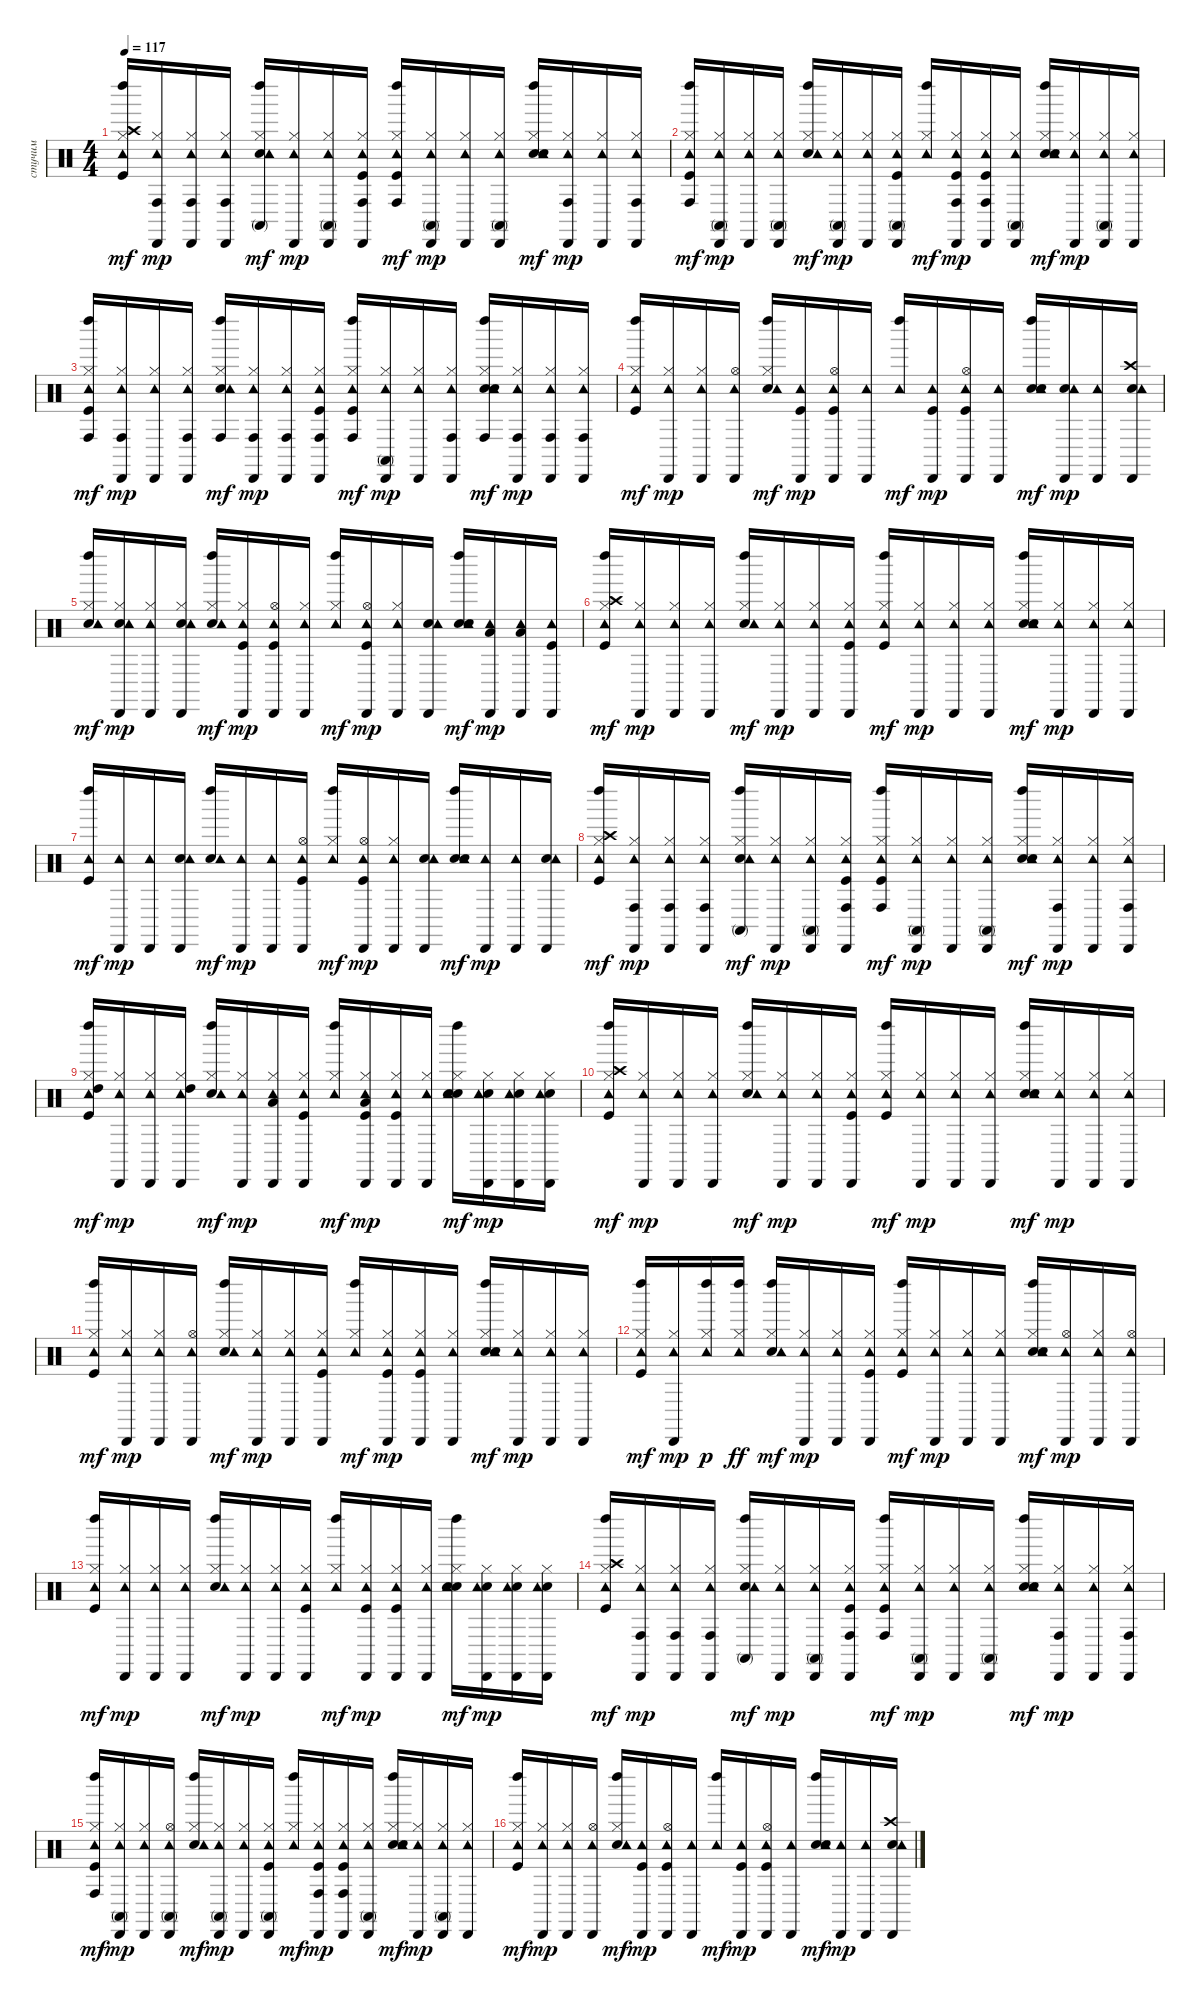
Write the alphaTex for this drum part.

\track ("стучим" "стучим") {instrument percussion}
\staff {score}
\articulation defaults
\ts (4 4)
\tempo 117
\clef neutral
\ks c
("Kick (hit)" "Hi-Hat (closed)" "Crash high (hit)" "Tambourine (hit)" "Left Maraca (hit)").16{dy mf} ("Hi-Hat (closed)" "Conga high (hit)" "Tambourine (hit)" "Cabasa (hit)").16{dy mp} ("Hi-Hat (closed)" "Conga high (hit)" "Tambourine (hit)" "Cabasa (hit)").16 ("Hi-Hat (closed)" "Conga high (hit)" "Tambourine (hit)" "Cabasa (hit)").16 ("Snare (hit) 2" "Hi-Hat (closed)" "Conga high (mute)" "Tambourine (hit)" "Left Maraca (hit)").16{dy mf} ("Hi-Hat (closed)" "Tambourine (hit)" "Cabasa (hit)").16{dy mp} ("Hi-Hat (closed)" "Conga high (mute)" "Tambourine (hit)" "Cabasa (hit)").16 ("Kick (hit)" "Hi-Hat (closed)" "Conga high (hit)" "Tambourine (hit)" "Cabasa (hit)").16 ("Kick (hit)" "Hi-Hat (closed)" "Conga high (hit)" "Tambourine (hit)" "Left Maraca (hit)").16{dy mf} ("Hi-Hat (closed)" "Conga high (mute)" "Tambourine (hit)" "Cabasa (hit)").16{dy mp} ("Hi-Hat (closed)" "Tambourine (hit)" "Cabasa (hit)").16 ("Hi-Hat (closed)" "Conga high (mute)" "Tambourine (hit)" "Cabasa (hit)").16 ("Snare (hit) 2" "Hi-Hat (closed)" "Tambourine (hit)" "Hand Clap (hit)" "Left Maraca (hit)").16{dy mf} ("Hi-Hat (closed)" "Conga high (hit)" "Tambourine (hit)" "Cabasa (hit)").16{dy mp} ("Hi-Hat (closed)" "Tambourine (hit)" "Cabasa (hit)").16 ("Hi-Hat (closed)" "Conga high (hit)" "Tambourine (hit)" "Cabasa (hit)").16 |
("Kick (hit)" "Hi-Hat (closed)" "Conga high (hit)" "Tambourine (hit)" "Left Maraca (hit)").16{dy mf} ("Hi-Hat (closed)" "Conga high (mute)" "Tambourine (hit)" "Cabasa (hit)").16{dy mp} ("Hi-Hat (closed)" "Tambourine (hit)" "Cabasa (hit)").16 ("Hi-Hat (closed)" "Conga high (mute)" "Tambourine (hit)" "Cabasa (hit)").16 ("Snare (hit) 2" "Hi-Hat (closed)" "Tambourine (hit)" "Left Maraca (hit)").16{dy mf} ("Hi-Hat (closed)" "Conga high (mute)" "Tambourine (hit)" "Cabasa (hit)").16{dy mp} ("Hi-Hat (closed)" "Tambourine (hit)" "Cabasa (hit)").16 ("Kick (hit)" "Hi-Hat (closed)" "Conga high (mute)" "Tambourine (hit)" "Cabasa (hit)").16 ("Hi-Hat (closed)" "Tambourine (hit)" "Left Maraca (hit)").16{dy mf} ("Kick (hit)" "Hi-Hat (closed)" "Conga high (hit)" "Tambourine (hit)" "Cabasa (hit)").16{dy mp} ("Kick (hit)" "Hi-Hat (closed)" "Conga high (hit)" "Tambourine (hit)" "Cabasa (hit)").16 ("Hi-Hat (closed)" "Conga high (mute)" "Tambourine (hit)" "Cabasa (hit)").16 ("Snare (hit) 2" "Hi-Hat (closed)" "Tambourine (hit)" "Hand Clap (hit)" "Left Maraca (hit)").16{dy mf} ("Hi-Hat (closed)" "Tambourine (hit)" "Cabasa (hit)").16{dy mp} ("Hi-Hat (closed)" "Conga high (mute)" "Tambourine (hit)" "Cabasa (hit)").16 ("Hi-Hat (closed)" "Tambourine (hit)" "Cabasa (hit)").16 |
("Kick (hit)" "Hi-Hat (closed)" "Conga high (hit)" "Tambourine (hit)" "Left Maraca (hit)").16{dy mf} ("Hi-Hat (closed)" "Conga high (hit)" "Tambourine (hit)" "Cabasa (hit)").16{dy mp} ("Hi-Hat (closed)" "Tambourine (hit)" "Cabasa (hit)").16 ("Hi-Hat (closed)" "Conga high (hit)" "Tambourine (hit)" "Cabasa (hit)").16 ("Snare (hit) 2" "Hi-Hat (closed)" "Conga high (hit)" "Tambourine (hit)" "Left Maraca (hit)").16{dy mf} ("Hi-Hat (closed)" "Conga high (hit)" "Tambourine (hit)" "Cabasa (hit)").16{dy mp} ("Hi-Hat (closed)" "Conga high (hit)" "Tambourine (hit)" "Cabasa (hit)").16 ("Kick (hit)" "Hi-Hat (closed)" "Conga high (hit)" "Tambourine (hit)" "Cabasa (hit)").16 ("Kick (hit)" "Hi-Hat (closed)" "Conga high (hit)" "Tambourine (hit)" "Left Maraca (hit)").16{dy mf} ("Hi-Hat (closed)" "Conga high (mute)" "Tambourine (hit)" "Cabasa (hit)").16{dy mp} ("Hi-Hat (closed)" "Tambourine (hit)" "Cabasa (hit)").16 ("Hi-Hat (closed)" "Conga high (hit)" "Tambourine (hit)" "Cabasa (hit)").16 ("Snare (hit) 2" "Hi-Hat (closed)" "Conga high (hit)" "Tambourine (hit)" "Hand Clap (hit)" "Left Maraca (hit)").16{dy mf} ("Hi-Hat (closed)" "Conga high (hit)" "Tambourine (hit)" "Cabasa (hit)").16{dy mp} ("Hi-Hat (closed)" "Conga high (hit)" "Tambourine (hit)" "Cabasa (hit)").16 ("Hi-Hat (closed)" "Conga high (hit)" "Tambourine (hit)" "Cabasa (hit)").16 |
("Kick (hit)" "Hi-Hat (closed)" "Tambourine (hit)" "Left Maraca (hit)").16{dy mf} ("Hi-Hat (closed)" "Tambourine (hit)" "Cabasa (hit)").16{dy mp} ("Hi-Hat (closed)" "Tambourine (hit)" "Cabasa (hit)").16 ("Hi-Hat (open)" "Tambourine (hit)" "Cabasa (hit)").16 ("Snare (hit) 2" "Hi-Hat (closed)" "Tambourine (hit)" "Left Maraca (hit)").16{dy mf} ("Kick (hit)" "Tambourine (hit)" "Cabasa (hit)").16{dy mp} ("Kick (hit)" "Hi-Hat (open)" "Tambourine (hit)" "Cabasa (hit)").16 ("Tambourine (hit)" "Cabasa (hit)").16 ("Tambourine (hit)" "Left Maraca (hit)").16{dy mf} ("Kick (hit)" "Tambourine (hit)" "Cabasa (hit)").16{dy mp} ("Kick (hit)" "Hi-Hat (open)" "Tambourine (hit)" "Cabasa (hit)").16 ("Tambourine (hit)" "Cabasa (hit)").16 ("Snare (hit) 2" "Tambourine (hit)" "Hand Clap (hit)" "Left Maraca (hit)").16{dy mf} ("Snare (hit) 2" "Tambourine (hit)" "Cabasa (hit)").16{dy mp} ("Tambourine (hit)" "Cabasa (hit)").16 ("Snare (hit) 2" "Crash high (hit)" "Tambourine (hit)" "Cabasa (hit)").16 |
("Snare (hit) 2" "Hi-Hat (closed)" "Tambourine (hit)" "Left Maraca (hit)").16{dy mf} ("Snare (hit) 2" "Hi-Hat (closed)" "Tambourine (hit)" "Cabasa (hit)").16{dy mp} ("Hi-Hat (closed)" "Tambourine (hit)" "Cabasa (hit)").16 ("Snare (hit) 2" "Hi-Hat (closed)" "Tambourine (hit)" "Cabasa (hit)").16 ("Snare (hit) 2" "Hi-Hat (closed)" "Tambourine (hit)" "Left Maraca (hit)").16{dy mf} ("Kick (hit)" "Hi-Hat (closed)" "Tambourine (hit)" "Cabasa (hit)").16{dy mp} ("Kick (hit)" "Hi-Hat (open)" "Tambourine (hit)" "Cabasa (hit)").16 ("Hi-Hat (closed)" "Tambourine (hit)" "Cabasa (hit)").16 ("Hi-Hat (closed)" "Tambourine (hit)" "Left Maraca (hit)").16{dy mf} ("Kick (hit)" "Hi-Hat (open)" "Tambourine (hit)" "Cabasa (hit)").16{dy mp} ("Hi-Hat (closed)" "Tambourine (hit)" "Cabasa (hit)").16 ("Snare (hit) 2" "Tambourine (hit)" "Cabasa (hit)").16 ("Snare (hit) 2" "Tambourine (hit)" "Hand Clap (hit)" "Left Maraca (hit)").16{dy mf} ("Low Floor Tom (hit)" "Tambourine (hit)" "Cabasa (hit)").16{dy mp} ("Low Floor Tom (hit)" "Tambourine (hit)" "Cabasa (hit)").16 ("Kick (hit)" "Tambourine (hit)" "Cabasa (hit)").16 |
("Kick (hit)" "Hi-Hat (closed)" "Crash high (hit)" "Tambourine (hit)" "Left Maraca (hit)").16{dy mf} ("Hi-Hat (closed)" "Tambourine (hit)" "Cabasa (hit)").16{dy mp} ("Hi-Hat (closed)" "Tambourine (hit)" "Cabasa (hit)").16 ("Hi-Hat (closed)" "Tambourine (hit)" "Cabasa (hit)").16 ("Snare (hit) 2" "Hi-Hat (closed)" "Tambourine (hit)" "Left Maraca (hit)").16{dy mf} ("Hi-Hat (closed)" "Tambourine (hit)" "Cabasa (hit)").16{dy mp} ("Hi-Hat (closed)" "Tambourine (hit)" "Cabasa (hit)").16 ("Kick (hit)" "Hi-Hat (closed)" "Tambourine (hit)" "Cabasa (hit)").16 ("Kick (hit)" "Hi-Hat (closed)" "Tambourine (hit)" "Left Maraca (hit)").16{dy mf} ("Hi-Hat (closed)" "Tambourine (hit)" "Cabasa (hit)").16{dy mp} ("Hi-Hat (closed)" "Tambourine (hit)" "Cabasa (hit)").16 ("Hi-Hat (closed)" "Tambourine (hit)" "Cabasa (hit)").16 ("Snare (hit) 2" "Hi-Hat (closed)" "Tambourine (hit)" "Hand Clap (hit)" "Left Maraca (hit)").16{dy mf} ("Hi-Hat (closed)" "Tambourine (hit)" "Cabasa (hit)").16{dy mp} ("Hi-Hat (closed)" "Tambourine (hit)" "Cabasa (hit)").16 ("Hi-Hat (closed)" "Tambourine (hit)" "Cabasa (hit)").16 |
("Kick (hit)" "Tambourine (hit)" "Left Maraca (hit)").16{dy mf} ("Tambourine (hit)" "Cabasa (hit)").16{dy mp} ("Tambourine (hit)" "Cabasa (hit)").16 ("Snare (hit) 2" "Tambourine (hit)" "Cabasa (hit)").16 ("Snare (hit) 2" "Tambourine (hit)" "Left Maraca (hit)").16{dy mf} ("Tambourine (hit)" "Cabasa (hit)").16{dy mp} ("Tambourine (hit)" "Cabasa (hit)").16 ("Kick (hit)" "Hi-Hat (open)" "Tambourine (hit)" "Cabasa (hit)").16 ("Hi-Hat (closed)" "Tambourine (hit)" "Left Maraca (hit)").16{dy mf} ("Kick (hit)" "Hi-Hat (open)" "Tambourine (hit)" "Cabasa (hit)").16{dy mp} ("Hi-Hat (closed)" "Tambourine (hit)" "Cabasa (hit)").16 ("Snare (hit) 2" "Tambourine (hit)" "Cabasa (hit)").16 ("Snare (hit) 2" "Tambourine (hit)" "Hand Clap (hit)" "Left Maraca (hit)").16{dy mf} ("Tambourine (hit)" "Cabasa (hit)").16{dy mp} ("Tambourine (hit)" "Cabasa (hit)").16 ("Snare (hit) 2" "Tambourine (hit)" "Cabasa (hit)").16 |
("Kick (hit)" "Hi-Hat (closed)" "Crash high (hit)" "Tambourine (hit)" "Left Maraca (hit)").16{dy mf} ("Hi-Hat (closed)" "Conga high (hit)" "Tambourine (hit)" "Cabasa (hit)").16{dy mp} ("Hi-Hat (closed)" "Conga high (hit)" "Tambourine (hit)" "Cabasa (hit)").16 ("Hi-Hat (closed)" "Conga high (hit)" "Tambourine (hit)" "Cabasa (hit)").16 ("Snare (hit) 2" "Hi-Hat (closed)" "Conga high (mute)" "Tambourine (hit)" "Left Maraca (hit)").16{dy mf} ("Hi-Hat (closed)" "Tambourine (hit)" "Cabasa (hit)").16{dy mp} ("Hi-Hat (closed)" "Conga high (mute)" "Tambourine (hit)" "Cabasa (hit)").16 ("Kick (hit)" "Hi-Hat (closed)" "Conga high (hit)" "Tambourine (hit)" "Cabasa (hit)").16 ("Kick (hit)" "Hi-Hat (closed)" "Conga high (hit)" "Tambourine (hit)" "Left Maraca (hit)").16{dy mf} ("Hi-Hat (closed)" "Conga high (mute)" "Tambourine (hit)" "Cabasa (hit)").16{dy mp} ("Hi-Hat (closed)" "Tambourine (hit)" "Cabasa (hit)").16 ("Hi-Hat (closed)" "Conga high (mute)" "Tambourine (hit)" "Cabasa (hit)").16 ("Snare (hit) 2" "Hi-Hat (closed)" "Tambourine (hit)" "Hand Clap (hit)" "Left Maraca (hit)").16{dy mf} ("Hi-Hat (closed)" "Conga high (hit)" "Tambourine (hit)" "Cabasa (hit)").16{dy mp} ("Hi-Hat (closed)" "Tambourine (hit)" "Cabasa (hit)").16 ("Hi-Hat (closed)" "Conga high (hit)" "Tambourine (hit)" "Cabasa (hit)").16 |
("Kick (hit)" "Hi-Hat (closed)" "High Tom (hit)" "Tambourine (hit)" "Left Maraca (hit)").16{dy mf} ("Hi-Hat (closed)" "Tambourine (hit)" "Cabasa (hit)").16{dy mp} ("Hi-Hat (closed)" "Tambourine (hit)" "Cabasa (hit)").16 ("Hi-Hat (closed)" "High Tom (hit)" "Tambourine (hit)" "Cabasa (hit)").16 ("Snare (hit) 2" "Hi-Hat (closed)" "Tambourine (hit)" "Left Maraca (hit)").16{dy mf} ("Hi-Hat (closed)" "Tambourine (hit)" "Cabasa (hit)").16{dy mp} ("Hi-Hat (closed)" "Low Tom (hit)" "Tambourine (hit)" "Cabasa (hit)").16 ("Kick (hit)" "Hi-Hat (closed)" "Tambourine (hit)" "Cabasa (hit)").16 ("Hi-Hat (closed)" "Tambourine (hit)" "Left Maraca (hit)").16{dy mf} ("Kick (hit)" "Hi-Hat (closed)" "Low Floor Tom (hit)" "Tambourine (hit)" "Cabasa (hit)").16{dy mp} ("Kick (hit)" "Hi-Hat (closed)" "Tambourine (hit)" "Cabasa (hit)").16 ("Hi-Hat (closed)" "Tambourine (hit)" "Cabasa (hit)").16 ("Snare (hit) 2" "Hi-Hat (closed)" "Tambourine (hit)" "Hand Clap (hit)" "Left Maraca (hit)").16{dy mf} ("Snare (hit) 2" "Hi-Hat (closed)" "Tambourine (hit)" "Cabasa (hit)").16{dy mp} ("Snare (hit) 2" "Hi-Hat (closed)" "Tambourine (hit)" "Cabasa (hit)").16 ("Snare (hit) 2" "Hi-Hat (closed)" "Tambourine (hit)" "Cabasa (hit)").16 |
("Kick (hit)" "Hi-Hat (closed)" "Crash high (hit)" "Tambourine (hit)" "Left Maraca (hit)").16{dy mf} ("Hi-Hat (closed)" "Tambourine (hit)" "Cabasa (hit)").16{dy mp} ("Hi-Hat (closed)" "Tambourine (hit)" "Cabasa (hit)").16 ("Hi-Hat (closed)" "Tambourine (hit)" "Cabasa (hit)").16 ("Snare (hit) 2" "Hi-Hat (closed)" "Tambourine (hit)" "Left Maraca (hit)").16{dy mf} ("Hi-Hat (closed)" "Tambourine (hit)" "Cabasa (hit)").16{dy mp} ("Hi-Hat (closed)" "Tambourine (hit)" "Cabasa (hit)").16 ("Kick (hit)" "Hi-Hat (closed)" "Tambourine (hit)" "Cabasa (hit)").16 ("Kick (hit)" "Hi-Hat (closed)" "Tambourine (hit)" "Left Maraca (hit)").16{dy mf} ("Hi-Hat (closed)" "Tambourine (hit)" "Cabasa (hit)").16{dy mp} ("Hi-Hat (closed)" "Tambourine (hit)" "Cabasa (hit)").16 ("Hi-Hat (closed)" "Tambourine (hit)" "Cabasa (hit)").16 ("Snare (hit) 2" "Hi-Hat (closed)" "Tambourine (hit)" "Hand Clap (hit)" "Left Maraca (hit)").16{dy mf} ("Hi-Hat (closed)" "Tambourine (hit)" "Cabasa (hit)").16{dy mp} ("Hi-Hat (closed)" "Tambourine (hit)" "Cabasa (hit)").16 ("Hi-Hat (closed)" "Tambourine (hit)" "Cabasa (hit)").16 |
("Kick (hit)" "Hi-Hat (closed)" "Tambourine (hit)" "Left Maraca (hit)").16{dy mf} ("Hi-Hat (closed)" "Tambourine (hit)" "Cabasa (hit)").16{dy mp} ("Hi-Hat (closed)" "Tambourine (hit)" "Cabasa (hit)").16 ("Hi-Hat (open)" "Tambourine (hit)" "Cabasa (hit)").16 ("Snare (hit) 2" "Hi-Hat (closed)" "Tambourine (hit)" "Left Maraca (hit)").16{dy mf} ("Hi-Hat (closed)" "Tambourine (hit)" "Cabasa (hit)").16{dy mp} ("Hi-Hat (closed)" "Tambourine (hit)" "Cabasa (hit)").16 ("Kick (hit)" "Hi-Hat (closed)" "Tambourine (hit)" "Cabasa (hit)").16 ("Hi-Hat (closed)" "Tambourine (hit)" "Left Maraca (hit)").16{dy mf} ("Kick (hit)" "Hi-Hat (closed)" "Tambourine (hit)" "Cabasa (hit)").16{dy mp} ("Kick (hit)" "Hi-Hat (closed)" "Tambourine (hit)" "Cabasa (hit)").16 ("Hi-Hat (closed)" "Tambourine (hit)" "Cabasa (hit)").16 ("Snare (hit) 2" "Hi-Hat (closed)" "Tambourine (hit)" "Hand Clap (hit)" "Left Maraca (hit)").16{dy mf} ("Hi-Hat (closed)" "Tambourine (hit)" "Cabasa (hit)").16{dy mp} ("Hi-Hat (closed)" "Tambourine (hit)" "Cabasa (hit)").16 ("Hi-Hat (closed)" "Tambourine (hit)" "Cabasa (hit)").16 |
("Kick (hit)" "Hi-Hat (closed)" "Tambourine (hit)" "Left Maraca (hit)").16{dy mf} ("Hi-Hat (closed)" "Tambourine (hit)" "Cabasa (hit)").16{dy mp} ("Hi-Hat (closed)" "Tambourine (hit)" "Left Maraca (hit)").16{dy p} ("Hi-Hat (closed)" "Tambourine (hit)" "Left Maraca (hit)").16{dy ff} ("Snare (hit) 2" "Hi-Hat (closed)" "Tambourine (hit)" "Left Maraca (hit)").16{dy mf} ("Hi-Hat (closed)" "Tambourine (hit)" "Cabasa (hit)").16{dy mp} ("Hi-Hat (closed)" "Tambourine (hit)" "Cabasa (hit)").16 ("Kick (hit)" "Hi-Hat (closed)" "Tambourine (hit)" "Cabasa (hit)").16 ("Kick (hit)" "Hi-Hat (closed)" "Tambourine (hit)" "Left Maraca (hit)").16{dy mf} ("Hi-Hat (closed)" "Tambourine (hit)" "Cabasa (hit)").16{dy mp} ("Hi-Hat (closed)" "Tambourine (hit)" "Cabasa (hit)").16 ("Hi-Hat (closed)" "Tambourine (hit)" "Cabasa (hit)").16 ("Snare (hit) 2" "Hi-Hat (closed)" "Tambourine (hit)" "Hand Clap (hit)" "Left Maraca (hit)").16{dy mf} ("Hi-Hat (open)" "Tambourine (hit)" "Cabasa (hit)").16{dy mp} ("Hi-Hat (closed)" "Tambourine (hit)" "Cabasa (hit)").16 ("Hi-Hat (open)" "Tambourine (hit)" "Cabasa (hit)").16 |
("Kick (hit)" "Hi-Hat (closed)" "Tambourine (hit)" "Left Maraca (hit)").16{dy mf} ("Hi-Hat (closed)" "Tambourine (hit)" "Cabasa (hit)").16{dy mp} ("Hi-Hat (closed)" "Tambourine (hit)" "Cabasa (hit)").16 ("Hi-Hat (closed)" "Tambourine (hit)" "Cabasa (hit)").16 ("Snare (hit) 2" "Hi-Hat (closed)" "Tambourine (hit)" "Left Maraca (hit)").16{dy mf} ("Hi-Hat (closed)" "Tambourine (hit)" "Cabasa (hit)").16{dy mp} ("Hi-Hat (closed)" "Tambourine (hit)" "Cabasa (hit)").16 ("Kick (hit)" "Hi-Hat (closed)" "Tambourine (hit)" "Cabasa (hit)").16 ("Hi-Hat (closed)" "Tambourine (hit)" "Left Maraca (hit)").16{dy mf} ("Kick (hit)" "Hi-Hat (closed)" "Tambourine (hit)" "Cabasa (hit)").16{dy mp} ("Kick (hit)" "Hi-Hat (closed)" "Tambourine (hit)" "Cabasa (hit)").16 ("Hi-Hat (closed)" "Tambourine (hit)" "Cabasa (hit)").16 ("Snare (hit) 2" "Hi-Hat (closed)" "Tambourine (hit)" "Hand Clap (hit)" "Left Maraca (hit)").16{dy mf} ("Snare (hit) 2" "Hi-Hat (closed)" "Tambourine (hit)" "Cabasa (hit)").16{dy mp} ("Snare (hit) 2" "Hi-Hat (closed)" "Tambourine (hit)" "Cabasa (hit)").16 ("Snare (hit) 2" "Hi-Hat (closed)" "Tambourine (hit)" "Cabasa (hit)").16 |
("Kick (hit)" "Hi-Hat (closed)" "Crash high (hit)" "Tambourine (hit)" "Left Maraca (hit)").16{dy mf} ("Hi-Hat (closed)" "Conga high (hit)" "Tambourine (hit)" "Cabasa (hit)").16{dy mp} ("Hi-Hat (closed)" "Conga high (hit)" "Tambourine (hit)" "Cabasa (hit)").16 ("Hi-Hat (closed)" "Conga high (hit)" "Tambourine (hit)" "Cabasa (hit)").16 ("Snare (hit) 2" "Hi-Hat (closed)" "Conga high (mute)" "Tambourine (hit)" "Left Maraca (hit)").16{dy mf} ("Hi-Hat (closed)" "Tambourine (hit)" "Cabasa (hit)").16{dy mp} ("Hi-Hat (closed)" "Conga high (mute)" "Tambourine (hit)" "Cabasa (hit)").16 ("Kick (hit)" "Hi-Hat (closed)" "Conga high (hit)" "Tambourine (hit)" "Cabasa (hit)").16 ("Kick (hit)" "Hi-Hat (closed)" "Conga high (hit)" "Tambourine (hit)" "Left Maraca (hit)").16{dy mf} ("Hi-Hat (closed)" "Conga high (mute)" "Tambourine (hit)" "Cabasa (hit)").16{dy mp} ("Hi-Hat (closed)" "Tambourine (hit)" "Cabasa (hit)").16 ("Hi-Hat (closed)" "Conga high (mute)" "Tambourine (hit)" "Cabasa (hit)").16 ("Snare (hit) 2" "Hi-Hat (closed)" "Tambourine (hit)" "Hand Clap (hit)" "Left Maraca (hit)").16{dy mf} ("Hi-Hat (closed)" "Conga high (hit)" "Tambourine (hit)" "Cabasa (hit)").16{dy mp} ("Hi-Hat (closed)" "Tambourine (hit)" "Cabasa (hit)").16 ("Hi-Hat (closed)" "Conga high (hit)" "Tambourine (hit)" "Cabasa (hit)").16 |
("Kick (hit)" "Hi-Hat (closed)" "Conga high (hit)" "Tambourine (hit)" "Left Maraca (hit)").16{dy mf} ("Hi-Hat (closed)" "Conga high (mute)" "Tambourine (hit)" "Cabasa (hit)").16{dy mp} ("Hi-Hat (closed)" "Tambourine (hit)" "Cabasa (hit)").16 ("Hi-Hat (open)" "Conga high (mute)" "Tambourine (hit)" "Cabasa (hit)").16 ("Snare (hit) 2" "Hi-Hat (closed)" "Tambourine (hit)" "Left Maraca (hit)").16{dy mf} ("Hi-Hat (closed)" "Conga high (mute)" "Tambourine (hit)" "Cabasa (hit)").16{dy mp} ("Hi-Hat (closed)" "Tambourine (hit)" "Cabasa (hit)").16 ("Kick (hit)" "Hi-Hat (closed)" "Conga high (mute)" "Tambourine (hit)" "Cabasa (hit)").16 ("Hi-Hat (closed)" "Tambourine (hit)" "Left Maraca (hit)").16{dy mf} ("Kick (hit)" "Hi-Hat (closed)" "Conga high (hit)" "Tambourine (hit)" "Cabasa (hit)").16{dy mp} ("Kick (hit)" "Hi-Hat (closed)" "Conga high (hit)" "Tambourine (hit)" "Cabasa (hit)").16 ("Hi-Hat (closed)" "Conga high (mute)" "Tambourine (hit)" "Cabasa (hit)").16 ("Snare (hit) 2" "Hi-Hat (closed)" "Tambourine (hit)" "Hand Clap (hit)" "Left Maraca (hit)").16{dy mf} ("Hi-Hat (closed)" "Tambourine (hit)" "Cabasa (hit)").16{dy mp} ("Hi-Hat (closed)" "Conga high (mute)" "Tambourine (hit)" "Cabasa (hit)").16 ("Hi-Hat (closed)" "Tambourine (hit)" "Cabasa (hit)").16 |
("Kick (hit)" "Hi-Hat (closed)" "Tambourine (hit)" "Left Maraca (hit)").16{dy mf} ("Hi-Hat (closed)" "Tambourine (hit)" "Cabasa (hit)").16{dy mp} ("Hi-Hat (closed)" "Tambourine (hit)" "Cabasa (hit)").16 ("Hi-Hat (open)" "Tambourine (hit)" "Cabasa (hit)").16 ("Snare (hit) 2" "Hi-Hat (closed)" "Tambourine (hit)" "Left Maraca (hit)").16{dy mf} ("Kick (hit)" "Tambourine (hit)" "Cabasa (hit)").16{dy mp} ("Kick (hit)" "Hi-Hat (open)" "Tambourine (hit)" "Cabasa (hit)").16 ("Tambourine (hit)" "Cabasa (hit)").16 ("Tambourine (hit)" "Left Maraca (hit)").16{dy mf} ("Kick (hit)" "Tambourine (hit)" "Cabasa (hit)").16{dy mp} ("Kick (hit)" "Hi-Hat (open)" "Tambourine (hit)" "Cabasa (hit)").16 ("Tambourine (hit)" "Cabasa (hit)").16 ("Snare (hit) 2" "Tambourine (hit)" "Hand Clap (hit)" "Left Maraca (hit)").16{dy mf} ("Tambourine (hit)" "Cabasa (hit)").16{dy mp} ("Tambourine (hit)" "Cabasa (hit)").16 ("Snare (hit) 2" "Crash high (hit)" "Tambourine (hit)" "Cabasa (hit)").16
